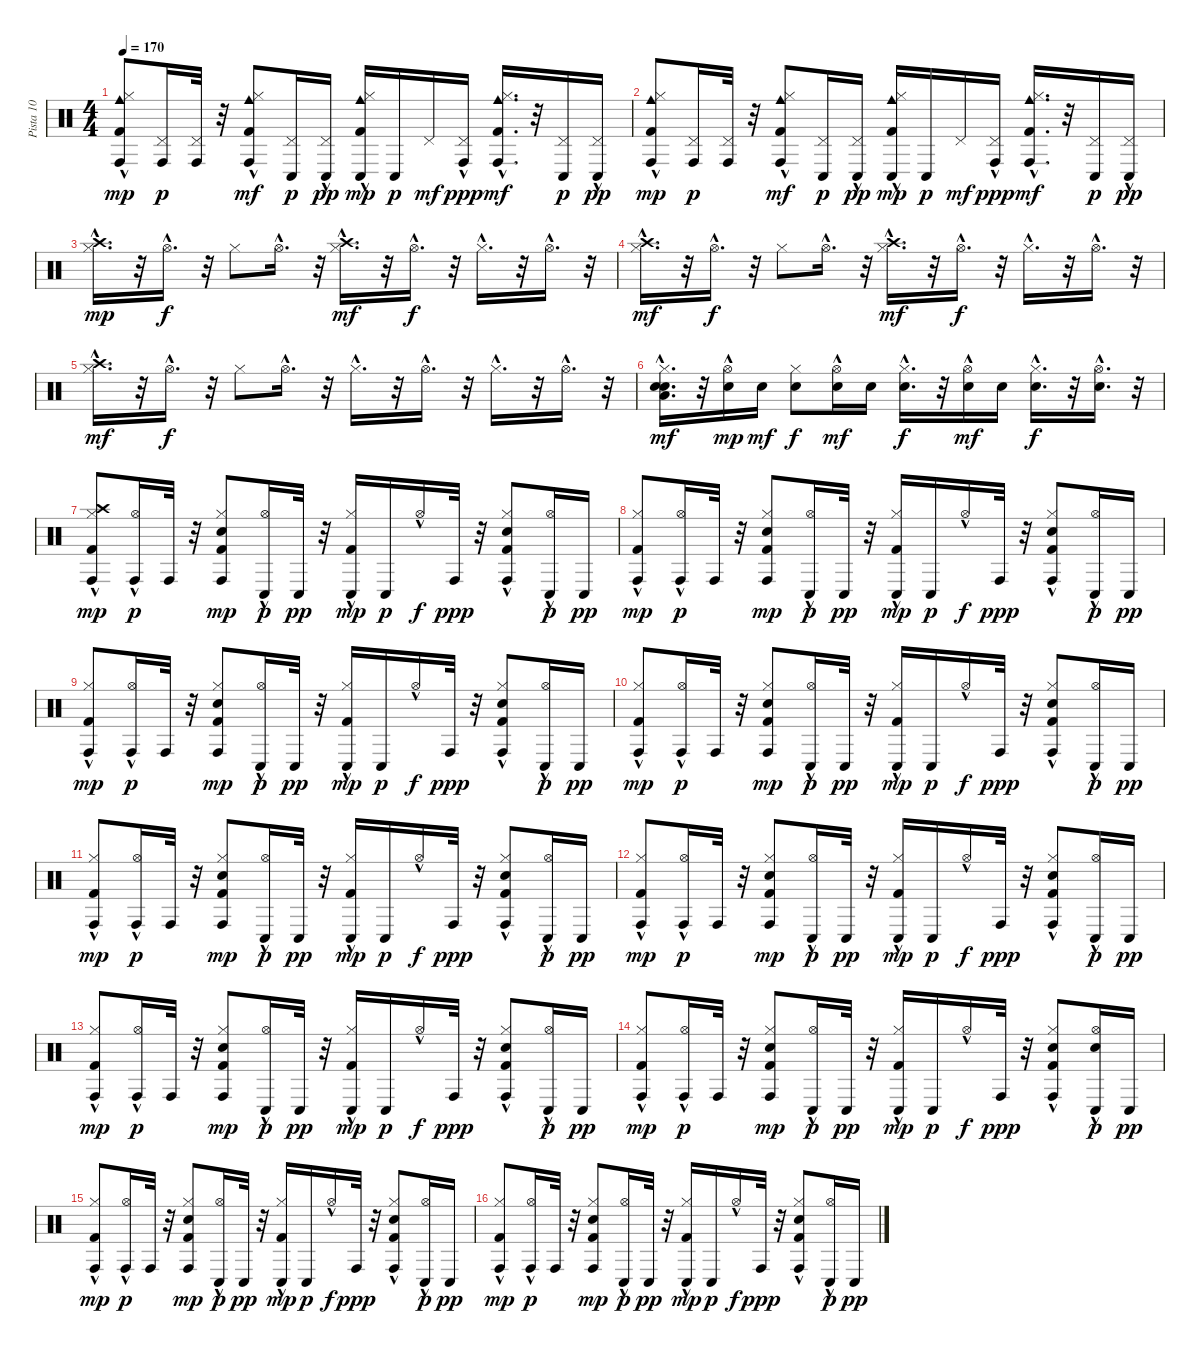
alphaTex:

\track ("Pista 10" "Pista 10") {instrument percussion}
\staff {score}
\articulation defaults
\ts (4 4)
\tempo 170
\clef neutral
\ks c
("Kick (hit) 2" "Hi-Hat (closed)"{hac} "Conga high (hit)" "Cowbell medium (hit)"{hac}).8{dy mp} ("Pedal Hi-Hat (hit)" "Conga high (hit)").16{dy p} ("Pedal Hi-Hat (hit)" "Conga high (hit)").32 r.32 ("Kick (hit) 2" "Hi-Hat (closed)" "Conga high (hit)" "Cowbell medium (hit)"{hac}).8{dy mf} ("Pedal Hi-Hat (hit)" "Conga low (hit)").16{dy p} ("Pedal Hi-Hat (hit)"{hac} "Conga low (hit)").16{dy pp} ("Kick (hit) 2" "Hi-Hat (closed)"{hac} "Conga low (hit)" "Cowbell medium (hit)"{hac}).16{dy mp} "Conga low (hit)".16{dy p} "Pedal Hi-Hat (hit)".16{dy mf} ("Pedal Hi-Hat (hit)"{hac} "Conga high (hit)").16{dy ppp} ("Kick (hit) 2" "Hi-Hat (closed)"{hac} "Conga high (hit)" "Cowbell medium (hit)"{hac}).16{d dy mf} r.32 ("Pedal Hi-Hat (hit)" "Conga low (hit)").16{dy p} ("Pedal Hi-Hat (hit)"{hac} "Conga low (hit)").16{dy pp} |
("Kick (hit) 2" "Hi-Hat (closed)"{hac} "Conga high (hit)" "Cowbell medium (hit)"{hac}).8{dy mp} ("Pedal Hi-Hat (hit)" "Conga high (hit)").16{dy p} ("Pedal Hi-Hat (hit)" "Conga high (hit)").32 r.32 ("Kick (hit) 2" "Hi-Hat (closed)" "Conga high (hit)" "Cowbell medium (hit)"{hac}).8{dy mf} ("Pedal Hi-Hat (hit)" "Conga low (hit)").16{dy p} ("Pedal Hi-Hat (hit)"{hac} "Conga low (hit)").16{dy pp} ("Kick (hit) 2" "Hi-Hat (closed)"{hac} "Conga low (hit)" "Cowbell medium (hit)"{hac}).16{dy mp} "Conga low (hit)".16{dy p} "Pedal Hi-Hat (hit)".16{dy mf} ("Pedal Hi-Hat (hit)"{hac} "Conga high (hit)").16{dy ppp} ("Kick (hit) 2" "Hi-Hat (closed)"{hac} "Conga high (hit)" "Cowbell medium (hit)"{hac}).16{d dy mf} r.32 ("Pedal Hi-Hat (hit)" "Conga low (hit)").16{dy p} ("Pedal Hi-Hat (hit)"{hac} "Conga low (hit)").16{dy pp} |
("Hi-Hat (closed)"{hac} "Crash high (hit)").16{d dy mp} r.32 "Hi-Hat (open)"{hac}.16{d dy f} r.32 "Hi-Hat (closed)".8 "Hi-Hat (open)"{hac}.16{d} r.32 ("Hi-Hat (closed)"{hac} "Crash high (hit)").16{d dy mf} r.32 "Hi-Hat (open)"{hac}.16{d dy f} r.32 "Hi-Hat (closed)"{hac}.16{d} r.32 "Hi-Hat (open)"{hac}.16{d} r.32 |
("Hi-Hat (closed)"{hac} "Crash high (hit)").16{d dy mf} r.32 "Hi-Hat (open)"{hac}.16{d dy f} r.32 "Hi-Hat (closed)".8 "Hi-Hat (open)"{hac}.16{d} r.32 ("Hi-Hat (closed)"{hac} "Crash high (hit)").16{d dy mf} r.32 "Hi-Hat (open)"{hac}.16{d dy f} r.32 "Hi-Hat (closed)"{hac}.16{d} r.32 "Hi-Hat (open)"{hac}.16{d} r.32 |
("Hi-Hat (closed)"{hac} "Crash high (hit)").16{d dy mf} r.32 "Hi-Hat (open)"{hac}.16{d dy f} r.32 "Hi-Hat (closed)".8 "Hi-Hat (open)"{hac}.16{d} r.32 "Hi-Hat (closed)"{hac}.16{d} r.32 "Hi-Hat (open)"{hac}.16{d} r.32 "Hi-Hat (closed)"{hac}.16{d} r.32 "Hi-Hat (open)"{hac}.16{d} r.32 |
("Hi-Hat (closed)"{hac} "Electric Snare (hit)" "Electric Snare (hit)" "Low Floor Tom (hit)").16{d dy mf} r.32 ("Hi-Hat (open)"{hac} "Snare (hit) 2").16{dy mp} "Snare (hit) 2".16{dy mf} ("Hi-Hat (closed)" "Electric Snare (hit)").8{dy f} ("Hi-Hat (open)"{hac} "Snare (hit) 2").16{dy mf} "Snare (hit) 2".16 ("Hi-Hat (closed)"{hac} "Electric Snare (hit)").16{d dy f} r.32 ("Hi-Hat (open)"{hac} "Snare (hit) 2").16{dy mf} "Snare (hit) 2".16 ("Hi-Hat (closed)"{hac} "Electric Snare (hit)").16{d dy f} r.32 ("Hi-Hat (open)"{hac} "Snare (hit) 2").16{d} r.32 |
("Kick (hit) 2" "Hi-Hat (closed)"{hac} "Conga high (hit)" "Crash high (hit)").8{dy mp} ("Hi-Hat (open)"{hac} "Conga high (hit)").16{dy p} "Conga high (hit)".32 r.32 ("Kick (hit) 2" "Electric Snare (hit)" "Hi-Hat (closed)" "Conga high (hit)").8{dy mp} ("Hi-Hat (open)"{hac} "Conga low (hit)").16{dy p} "Conga low (hit)".32{dy pp} r.32 ("Kick (hit) 2" "Hi-Hat (closed)"{hac} "Conga low (hit)").16{dy mp} "Conga low (hit)".16{dy p} "Hi-Hat (open)"{hac}.16{dy f} "Conga high (hit)".32{dy ppp} r.32 ("Kick (hit) 2" "Electric Snare (hit)" "Hi-Hat (closed)"{hac} "Conga high (hit)").8 ("Hi-Hat (open)"{hac} "Conga low (hit)").16{dy p} "Conga low (hit)".16{dy pp} |
("Kick (hit) 2" "Hi-Hat (closed)"{hac} "Conga high (hit)").8{dy mp} ("Hi-Hat (open)"{hac} "Conga high (hit)").16{dy p} "Conga high (hit)".32 r.32 ("Kick (hit) 2" "Electric Snare (hit)" "Hi-Hat (closed)" "Conga high (hit)").8{dy mp} ("Hi-Hat (open)"{hac} "Conga low (hit)").16{dy p} "Conga low (hit)".32{dy pp} r.32 ("Kick (hit) 2" "Hi-Hat (closed)"{hac} "Conga low (hit)").16{dy mp} "Conga low (hit)".16{dy p} "Hi-Hat (open)"{hac}.16{dy f} "Conga high (hit)".32{dy ppp} r.32 ("Kick (hit) 2" "Electric Snare (hit)" "Hi-Hat (closed)"{hac} "Conga high (hit)").8 ("Hi-Hat (open)"{hac} "Conga low (hit)").16{dy p} "Conga low (hit)".16{dy pp} |
("Kick (hit) 2" "Hi-Hat (closed)"{hac} "Conga high (hit)").8{dy mp} ("Hi-Hat (open)"{hac} "Conga high (hit)").16{dy p} "Conga high (hit)".32 r.32 ("Kick (hit) 2" "Electric Snare (hit)" "Hi-Hat (closed)" "Conga high (hit)").8{dy mp} ("Hi-Hat (open)"{hac} "Conga low (hit)").16{dy p} "Conga low (hit)".32{dy pp} r.32 ("Kick (hit) 2" "Hi-Hat (closed)"{hac} "Conga low (hit)").16{dy mp} "Conga low (hit)".16{dy p} "Hi-Hat (open)"{hac}.16{dy f} "Conga high (hit)".32{dy ppp} r.32 ("Kick (hit) 2" "Electric Snare (hit)" "Hi-Hat (closed)"{hac} "Conga high (hit)").8 ("Hi-Hat (open)"{hac} "Conga low (hit)").16{dy p} "Conga low (hit)".16{dy pp} |
("Kick (hit) 2" "Hi-Hat (closed)"{hac} "Conga high (hit)").8{dy mp} ("Hi-Hat (open)"{hac} "Conga high (hit)").16{dy p} "Conga high (hit)".32 r.32 ("Kick (hit) 2" "Electric Snare (hit)" "Hi-Hat (closed)" "Conga high (hit)").8{dy mp} ("Hi-Hat (open)"{hac} "Conga low (hit)").16{dy p} "Conga low (hit)".32{dy pp} r.32 ("Kick (hit) 2" "Hi-Hat (closed)"{hac} "Conga low (hit)").16{dy mp} "Conga low (hit)".16{dy p} "Hi-Hat (open)"{hac}.16{dy f} "Conga high (hit)".32{dy ppp} r.32 ("Kick (hit) 2" "Electric Snare (hit)" "Hi-Hat (closed)"{hac} "Conga high (hit)").8 ("Hi-Hat (open)"{hac} "Conga low (hit)").16{dy p} "Conga low (hit)".16{dy pp} |
("Kick (hit) 2" "Hi-Hat (closed)"{hac} "Conga high (hit)").8{dy mp} ("Hi-Hat (open)"{hac} "Conga high (hit)").16{dy p} "Conga high (hit)".32 r.32 ("Kick (hit) 2" "Electric Snare (hit)" "Hi-Hat (closed)" "Conga high (hit)").8{dy mp} ("Hi-Hat (open)"{hac} "Conga low (hit)").16{dy p} "Conga low (hit)".32{dy pp} r.32 ("Kick (hit) 2" "Hi-Hat (closed)"{hac} "Conga low (hit)").16{dy mp} "Conga low (hit)".16{dy p} "Hi-Hat (open)"{hac}.16{dy f} "Conga high (hit)".32{dy ppp} r.32 ("Kick (hit) 2" "Electric Snare (hit)" "Hi-Hat (closed)"{hac} "Conga high (hit)").8 ("Hi-Hat (open)"{hac} "Conga low (hit)").16{dy p} "Conga low (hit)".16{dy pp} |
("Kick (hit) 2" "Hi-Hat (closed)"{hac} "Conga high (hit)").8{dy mp} ("Hi-Hat (open)"{hac} "Conga high (hit)").16{dy p} "Conga high (hit)".32 r.32 ("Kick (hit) 2" "Electric Snare (hit)" "Hi-Hat (closed)" "Conga high (hit)").8{dy mp} ("Hi-Hat (open)"{hac} "Conga low (hit)").16{dy p} "Conga low (hit)".32{dy pp} r.32 ("Kick (hit) 2" "Hi-Hat (closed)"{hac} "Conga low (hit)").16{dy mp} "Conga low (hit)".16{dy p} "Hi-Hat (open)"{hac}.16{dy f} "Conga high (hit)".32{dy ppp} r.32 ("Kick (hit) 2" "Electric Snare (hit)" "Hi-Hat (closed)"{hac} "Conga high (hit)").8 ("Hi-Hat (open)"{hac} "Conga low (hit)").16{dy p} "Conga low (hit)".16{dy pp} |
("Kick (hit) 2" "Hi-Hat (closed)"{hac} "Conga high (hit)").8{dy mp} ("Hi-Hat (open)"{hac} "Conga high (hit)").16{dy p} "Conga high (hit)".32 r.32 ("Kick (hit) 2" "Electric Snare (hit)" "Hi-Hat (closed)" "Conga high (hit)").8{dy mp} ("Hi-Hat (open)"{hac} "Conga low (hit)").16{dy p} "Conga low (hit)".32{dy pp} r.32 ("Kick (hit) 2" "Hi-Hat (closed)"{hac} "Conga low (hit)").16{dy mp} "Conga low (hit)".16{dy p} "Hi-Hat (open)"{hac}.16{dy f} "Conga high (hit)".32{dy ppp} r.32 ("Kick (hit) 2" "Electric Snare (hit)" "Hi-Hat (closed)"{hac} "Conga high (hit)").8 ("Hi-Hat (open)"{hac} "Conga low (hit)").16{dy p} "Conga low (hit)".16{dy pp} |
("Kick (hit) 2" "Hi-Hat (closed)"{hac} "Conga high (hit)").8{dy mp} ("Hi-Hat (open)"{hac} "Conga high (hit)").16{dy p} "Conga high (hit)".32 r.32 ("Kick (hit) 2" "Electric Snare (hit)" "Hi-Hat (closed)" "Conga high (hit)").8{dy mp} ("Hi-Hat (open)"{hac} "Conga low (hit)").16{dy p} "Conga low (hit)".32{dy pp} r.32 ("Kick (hit) 2" "Hi-Hat (closed)"{hac} "Conga low (hit)").16{dy mp} "Conga low (hit)".16{dy p} "Hi-Hat (open)"{hac}.16{dy f} "Conga high (hit)".32{dy ppp} r.32 ("Kick (hit) 2" "Electric Snare (hit)" "Hi-Hat (closed)"{hac} "Conga high (hit)").8 ("Hi-Hat (open)"{hac} "Snare (hit) 2" "Conga low (hit)").16{dy p} "Conga low (hit)".16{dy pp} |
("Kick (hit) 2" "Hi-Hat (closed)"{hac} "Conga high (hit)").8{dy mp} ("Hi-Hat (open)"{hac} "Conga high (hit)").16{dy p} "Conga high (hit)".32 r.32 ("Kick (hit) 2" "Electric Snare (hit)" "Hi-Hat (closed)" "Conga high (hit)").8{dy mp} ("Hi-Hat (open)"{hac} "Conga low (hit)").16{dy p} "Conga low (hit)".32{dy pp} r.32 ("Kick (hit) 2" "Hi-Hat (closed)"{hac} "Conga low (hit)").16{dy mp} "Conga low (hit)".16{dy p} "Hi-Hat (open)"{hac}.16{dy f} "Conga high (hit)".32{dy ppp} r.32 ("Kick (hit) 2" "Electric Snare (hit)" "Hi-Hat (closed)"{hac} "Conga high (hit)").8 ("Hi-Hat (open)"{hac} "Conga low (hit)").16{dy p} "Conga low (hit)".16{dy pp} |
("Kick (hit) 2" "Hi-Hat (closed)"{hac} "Conga high (hit)").8{dy mp} ("Hi-Hat (open)"{hac} "Conga high (hit)").16{dy p} "Conga high (hit)".32 r.32 ("Kick (hit) 2" "Electric Snare (hit)" "Hi-Hat (closed)" "Conga high (hit)").8{dy mp} ("Hi-Hat (open)"{hac} "Conga low (hit)").16{dy p} "Conga low (hit)".32{dy pp} r.32 ("Kick (hit) 2" "Hi-Hat (closed)"{hac} "Conga low (hit)").16{dy mp} "Conga low (hit)".16{dy p} "Hi-Hat (open)"{hac}.16{dy f} "Conga high (hit)".32{dy ppp} r.32 ("Kick (hit) 2" "Electric Snare (hit)" "Hi-Hat (closed)"{hac} "Conga high (hit)").8 ("Hi-Hat (open)"{hac} "Conga low (hit)").16{dy p} "Conga low (hit)".16{dy pp}
